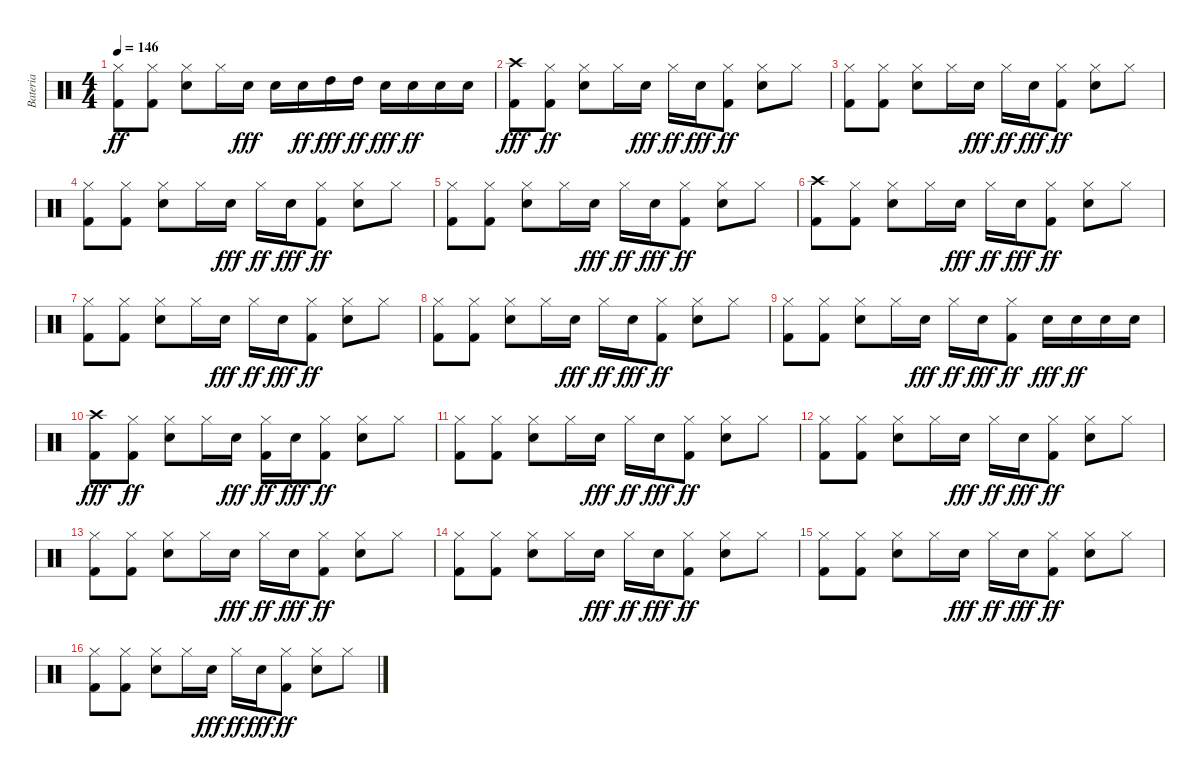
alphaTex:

\track ("Bateria" "Bateria") {instrument percussion}
\staff {score}
\articulation defaults
\ts (4 4)
\tempo 146
\clef neutral
\ks c
("Kick (hit) 2" "Hi-Hat (closed)").8{dy ff} ("Kick (hit) 2" "Hi-Hat (closed)").8 ("Electric Snare (hit)" "Hi-Hat (closed)").8 "Hi-Hat (closed)".16 "Electric Snare (hit)".16{dy fff} "Electric Snare (hit)".16 "Electric Snare (hit)".16{dy ff} "High Tom (hit)".16{dy fff} "High Tom (hit)".16{dy ff} "Electric Snare (hit)".16{dy fff} "Electric Snare (hit)".16{dy ff} "Electric Snare (hit)".16 "Electric Snare (hit)".16 |
("Crash high (hit)" "Kick (hit) 2").8{dy fff} ("Kick (hit) 2" "Hi-Hat (closed)").8{dy ff} ("Electric Snare (hit)" "Hi-Hat (closed)").8 "Hi-Hat (closed)".16 "Electric Snare (hit)".16{dy fff} "Hi-Hat (closed)".16{dy ff} "Electric Snare (hit)".16{dy fff} ("Kick (hit) 2" "Hi-Hat (closed)").8{dy ff} ("Electric Snare (hit)" "Hi-Hat (closed)").8 "Hi-Hat (closed)".8 |
("Kick (hit) 2" "Hi-Hat (closed)").8 ("Kick (hit) 2" "Hi-Hat (closed)").8 ("Electric Snare (hit)" "Hi-Hat (closed)").8 "Hi-Hat (closed)".16 "Electric Snare (hit)".16{dy fff} "Hi-Hat (closed)".16{dy ff} "Electric Snare (hit)".16{dy fff} ("Kick (hit) 2" "Hi-Hat (closed)").8{dy ff} ("Electric Snare (hit)" "Hi-Hat (closed)").8 "Hi-Hat (closed)".8 |
("Kick (hit) 2" "Hi-Hat (closed)").8 ("Kick (hit) 2" "Hi-Hat (closed)").8 ("Electric Snare (hit)" "Hi-Hat (closed)").8 "Hi-Hat (closed)".16 "Electric Snare (hit)".16{dy fff} "Hi-Hat (closed)".16{dy ff} "Electric Snare (hit)".16{dy fff} ("Kick (hit) 2" "Hi-Hat (closed)").8{dy ff} ("Electric Snare (hit)" "Hi-Hat (closed)").8 "Hi-Hat (closed)".8 |
("Kick (hit) 2" "Hi-Hat (closed)").8 ("Kick (hit) 2" "Hi-Hat (closed)").8 ("Electric Snare (hit)" "Hi-Hat (closed)").8 "Hi-Hat (closed)".16 "Electric Snare (hit)".16{dy fff} "Hi-Hat (closed)".16{dy ff} "Electric Snare (hit)".16{dy fff} ("Kick (hit) 2" "Hi-Hat (closed)").8{dy ff} ("Electric Snare (hit)" "Hi-Hat (closed)").8 "Hi-Hat (closed)".8 |
("Crash high (hit)" "Kick (hit) 2").8 ("Kick (hit) 2" "Hi-Hat (closed)").8 ("Electric Snare (hit)" "Hi-Hat (closed)").8 "Hi-Hat (closed)".16 "Electric Snare (hit)".16{dy fff} "Hi-Hat (closed)".16{dy ff} "Electric Snare (hit)".16{dy fff} ("Kick (hit) 2" "Hi-Hat (closed)").8{dy ff} ("Electric Snare (hit)" "Hi-Hat (closed)").8 "Hi-Hat (closed)".8 |
("Kick (hit) 2" "Hi-Hat (closed)").8 ("Kick (hit) 2" "Hi-Hat (closed)").8 ("Electric Snare (hit)" "Hi-Hat (closed)").8 "Hi-Hat (closed)".16 "Electric Snare (hit)".16{dy fff} "Hi-Hat (closed)".16{dy ff} "Electric Snare (hit)".16{dy fff} ("Kick (hit) 2" "Hi-Hat (closed)").8{dy ff} ("Electric Snare (hit)" "Hi-Hat (closed)").8 "Hi-Hat (closed)".8 |
("Kick (hit) 2" "Hi-Hat (closed)").8 ("Kick (hit) 2" "Hi-Hat (closed)").8 ("Electric Snare (hit)" "Hi-Hat (closed)").8 "Hi-Hat (closed)".16 "Electric Snare (hit)".16{dy fff} "Hi-Hat (closed)".16{dy ff} "Electric Snare (hit)".16{dy fff} ("Kick (hit) 2" "Hi-Hat (closed)").8{dy ff} ("Electric Snare (hit)" "Hi-Hat (closed)").8 "Hi-Hat (closed)".8 |
("Kick (hit) 2" "Hi-Hat (closed)").8 ("Kick (hit) 2" "Hi-Hat (closed)").8 ("Electric Snare (hit)" "Hi-Hat (closed)").8 "Hi-Hat (closed)".16 "Electric Snare (hit)".16{dy fff} "Hi-Hat (closed)".16{dy ff} "Electric Snare (hit)".16{dy fff} ("Kick (hit) 2" "Hi-Hat (closed)").8{dy ff} "Electric Snare (hit)".16{dy fff} "Electric Snare (hit)".16{dy ff} "Electric Snare (hit)".16 "Electric Snare (hit)".16 |
("Crash high (hit)" "Kick (hit) 2").8{dy fff} ("Kick (hit) 2" "Hi-Hat (closed)").8{dy ff} ("Electric Snare (hit)" "Hi-Hat (closed)").8 "Hi-Hat (closed)".16 "Electric Snare (hit)".16{dy fff} ("Kick (hit) 2" "Hi-Hat (closed)").16{dy ff} "Electric Snare (hit)".16{dy fff} ("Kick (hit) 2" "Hi-Hat (closed)").8{dy ff} ("Electric Snare (hit)" "Hi-Hat (closed)").8 "Hi-Hat (closed)".8 |
("Kick (hit) 2" "Hi-Hat (closed)").8 ("Kick (hit) 2" "Hi-Hat (closed)").8 ("Electric Snare (hit)" "Hi-Hat (closed)").8 "Hi-Hat (closed)".16 "Electric Snare (hit)".16{dy fff} "Hi-Hat (closed)".16{dy ff} "Electric Snare (hit)".16{dy fff} ("Kick (hit) 2" "Hi-Hat (closed)").8{dy ff} ("Electric Snare (hit)" "Hi-Hat (closed)").8 "Hi-Hat (closed)".8 |
("Kick (hit) 2" "Hi-Hat (closed)").8 ("Kick (hit) 2" "Hi-Hat (closed)").8 ("Electric Snare (hit)" "Hi-Hat (closed)").8 "Hi-Hat (closed)".16 "Electric Snare (hit)".16{dy fff} "Hi-Hat (closed)".16{dy ff} "Electric Snare (hit)".16{dy fff} ("Kick (hit) 2" "Hi-Hat (closed)").8{dy ff} ("Electric Snare (hit)" "Hi-Hat (closed)").8 "Hi-Hat (closed)".8 |
("Kick (hit) 2" "Hi-Hat (closed)").8 ("Kick (hit) 2" "Hi-Hat (closed)").8 ("Electric Snare (hit)" "Hi-Hat (closed)").8 "Hi-Hat (closed)".16 "Electric Snare (hit)".16{dy fff} "Hi-Hat (closed)".16{dy ff} "Electric Snare (hit)".16{dy fff} ("Kick (hit) 2" "Hi-Hat (closed)").8{dy ff} ("Electric Snare (hit)" "Hi-Hat (closed)").8 "Hi-Hat (closed)".8 |
("Kick (hit) 2" "Hi-Hat (closed)").8 ("Kick (hit) 2" "Hi-Hat (closed)").8 ("Electric Snare (hit)" "Hi-Hat (closed)").8 "Hi-Hat (closed)".16 "Electric Snare (hit)".16{dy fff} "Hi-Hat (closed)".16{dy ff} "Electric Snare (hit)".16{dy fff} ("Kick (hit) 2" "Hi-Hat (closed)").8{dy ff} ("Electric Snare (hit)" "Hi-Hat (closed)").8 "Hi-Hat (closed)".8 |
("Kick (hit) 2" "Hi-Hat (closed)").8 ("Kick (hit) 2" "Hi-Hat (closed)").8 ("Electric Snare (hit)" "Hi-Hat (closed)").8 "Hi-Hat (closed)".16 "Electric Snare (hit)".16{dy fff} "Hi-Hat (closed)".16{dy ff} "Electric Snare (hit)".16{dy fff} ("Kick (hit) 2" "Hi-Hat (closed)").8{dy ff} ("Electric Snare (hit)" "Hi-Hat (closed)").8 "Hi-Hat (closed)".8 |
("Kick (hit) 2" "Hi-Hat (closed)").8 ("Kick (hit) 2" "Hi-Hat (closed)").8 ("Electric Snare (hit)" "Hi-Hat (closed)").8 "Hi-Hat (closed)".16 "Electric Snare (hit)".16{dy fff} "Hi-Hat (closed)".16{dy ff} "Electric Snare (hit)".16{dy fff} ("Kick (hit) 2" "Hi-Hat (closed)").8{dy ff} ("Electric Snare (hit)" "Hi-Hat (closed)").8 "Hi-Hat (closed)".8
